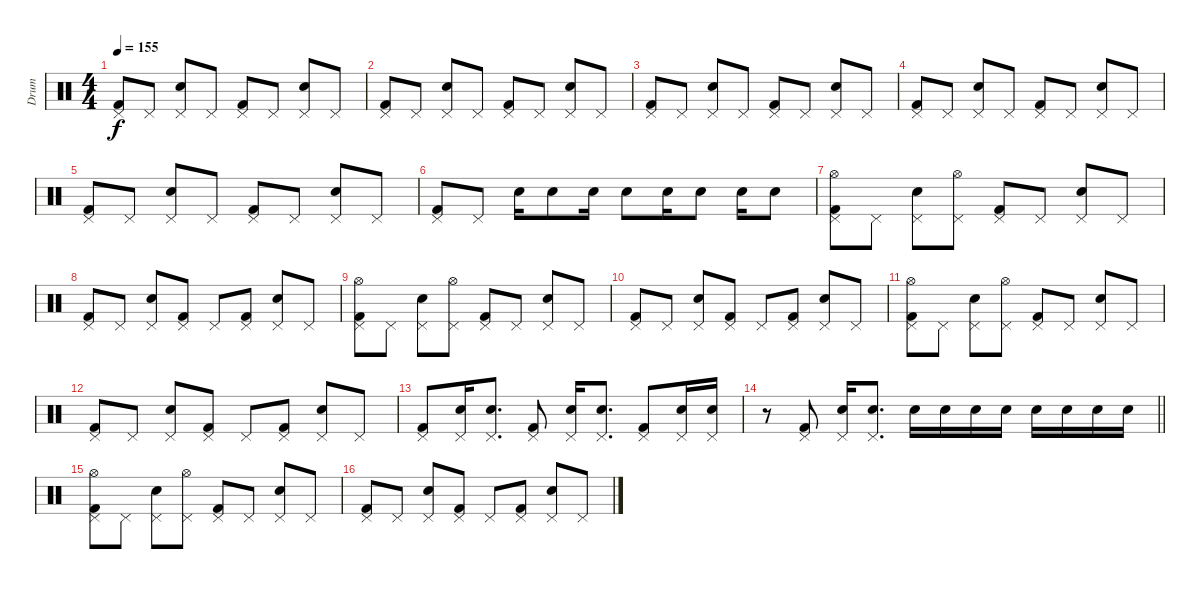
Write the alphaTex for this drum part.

\track ("Drum" "Drum") {instrument percussion}
\staff {score}
\articulation defaults
\ts (4 4)
\tempo 155
\clef neutral
\ks c
("Kick (hit) 2" "Pedal Hi-Hat (hit)").8{dy f} "Pedal Hi-Hat (hit)".8 ("Electric Snare (hit)" "Pedal Hi-Hat (hit)").8 "Pedal Hi-Hat (hit)".8 ("Kick (hit) 2" "Pedal Hi-Hat (hit)").8 "Pedal Hi-Hat (hit)".8 ("Electric Snare (hit)" "Pedal Hi-Hat (hit)").8 "Pedal Hi-Hat (hit)".8 |
("Kick (hit) 2" "Pedal Hi-Hat (hit)").8 "Pedal Hi-Hat (hit)".8 ("Electric Snare (hit)" "Pedal Hi-Hat (hit)").8 "Pedal Hi-Hat (hit)".8 ("Kick (hit) 2" "Pedal Hi-Hat (hit)").8 "Pedal Hi-Hat (hit)".8 ("Electric Snare (hit)" "Pedal Hi-Hat (hit)").8 "Pedal Hi-Hat (hit)".8 |
("Kick (hit) 2" "Pedal Hi-Hat (hit)").8 "Pedal Hi-Hat (hit)".8 ("Electric Snare (hit)" "Pedal Hi-Hat (hit)").8 "Pedal Hi-Hat (hit)".8 ("Kick (hit) 2" "Pedal Hi-Hat (hit)").8 "Pedal Hi-Hat (hit)".8 ("Electric Snare (hit)" "Pedal Hi-Hat (hit)").8 "Pedal Hi-Hat (hit)".8 |
("Kick (hit) 2" "Pedal Hi-Hat (hit)").8 "Pedal Hi-Hat (hit)".8 ("Electric Snare (hit)" "Pedal Hi-Hat (hit)").8 "Pedal Hi-Hat (hit)".8 ("Kick (hit) 2" "Pedal Hi-Hat (hit)").8 "Pedal Hi-Hat (hit)".8 ("Electric Snare (hit)" "Pedal Hi-Hat (hit)").8 "Pedal Hi-Hat (hit)".8 |
("Kick (hit) 2" "Pedal Hi-Hat (hit)").8 "Pedal Hi-Hat (hit)".8 ("Electric Snare (hit)" "Pedal Hi-Hat (hit)").8 "Pedal Hi-Hat (hit)".8 ("Kick (hit) 2" "Pedal Hi-Hat (hit)").8 "Pedal Hi-Hat (hit)".8 ("Electric Snare (hit)" "Pedal Hi-Hat (hit)").8 "Pedal Hi-Hat (hit)".8 |
("Kick (hit) 2" "Pedal Hi-Hat (hit)").8 "Pedal Hi-Hat (hit)".8 "Electric Snare (hit)".16 "Electric Snare (hit)".8 "Electric Snare (hit)".16 "Electric Snare (hit)".8 "Electric Snare (hit)".16 "Electric Snare (hit)".8 "Electric Snare (hit)".16 "Electric Snare (hit)".8 |
("Kick (hit) 2" "Pedal Hi-Hat (hit)" "Hi-Hat (open)").8 "Pedal Hi-Hat (hit)".8 ("Electric Snare (hit)" "Pedal Hi-Hat (hit)").8 ("Pedal Hi-Hat (hit)" "Hi-Hat (open)").8 ("Kick (hit) 2" "Pedal Hi-Hat (hit)").8 "Pedal Hi-Hat (hit)".8 ("Electric Snare (hit)" "Pedal Hi-Hat (hit)").8 "Pedal Hi-Hat (hit)".8 |
("Kick (hit) 2" "Pedal Hi-Hat (hit)").8 "Pedal Hi-Hat (hit)".8 ("Electric Snare (hit)" "Pedal Hi-Hat (hit)").8 ("Kick (hit) 2" "Pedal Hi-Hat (hit)").8 "Pedal Hi-Hat (hit)".8 ("Kick (hit) 2" "Pedal Hi-Hat (hit)").8 ("Electric Snare (hit)" "Pedal Hi-Hat (hit)").8 "Pedal Hi-Hat (hit)".8 |
("Kick (hit) 2" "Pedal Hi-Hat (hit)" "Hi-Hat (open)").8 "Pedal Hi-Hat (hit)".8 ("Electric Snare (hit)" "Pedal Hi-Hat (hit)").8 ("Pedal Hi-Hat (hit)" "Hi-Hat (open)").8 ("Kick (hit) 2" "Pedal Hi-Hat (hit)").8 "Pedal Hi-Hat (hit)".8 ("Electric Snare (hit)" "Pedal Hi-Hat (hit)").8 "Pedal Hi-Hat (hit)".8 |
("Kick (hit) 2" "Pedal Hi-Hat (hit)").8 "Pedal Hi-Hat (hit)".8 ("Electric Snare (hit)" "Pedal Hi-Hat (hit)").8 ("Kick (hit) 2" "Pedal Hi-Hat (hit)").8 "Pedal Hi-Hat (hit)".8 ("Kick (hit) 2" "Pedal Hi-Hat (hit)").8 ("Electric Snare (hit)" "Pedal Hi-Hat (hit)").8 "Pedal Hi-Hat (hit)".8 |
("Kick (hit) 2" "Pedal Hi-Hat (hit)" "Hi-Hat (open)").8 "Pedal Hi-Hat (hit)".8 ("Electric Snare (hit)" "Pedal Hi-Hat (hit)").8 ("Pedal Hi-Hat (hit)" "Hi-Hat (open)").8 ("Kick (hit) 2" "Pedal Hi-Hat (hit)").8 "Pedal Hi-Hat (hit)".8 ("Electric Snare (hit)" "Pedal Hi-Hat (hit)").8 "Pedal Hi-Hat (hit)".8 |
("Kick (hit) 2" "Pedal Hi-Hat (hit)").8 "Pedal Hi-Hat (hit)".8 ("Electric Snare (hit)" "Pedal Hi-Hat (hit)").8 ("Kick (hit) 2" "Pedal Hi-Hat (hit)").8 "Pedal Hi-Hat (hit)".8 ("Kick (hit) 2" "Pedal Hi-Hat (hit)").8 ("Electric Snare (hit)" "Pedal Hi-Hat (hit)").8 "Pedal Hi-Hat (hit)".8 |
("Kick (hit) 2" "Pedal Hi-Hat (hit)").8 ("Electric Snare (hit)" "Pedal Hi-Hat (hit)").16 ("Electric Snare (hit)" "Pedal Hi-Hat (hit)").8{d} ("Kick (hit) 2" "Pedal Hi-Hat (hit)").8 ("Electric Snare (hit)" "Pedal Hi-Hat (hit)").16 ("Electric Snare (hit)" "Pedal Hi-Hat (hit)").8{d} ("Kick (hit) 2" "Pedal Hi-Hat (hit)").8 ("Electric Snare (hit)" "Pedal Hi-Hat (hit)").16 ("Electric Snare (hit)" "Pedal Hi-Hat (hit)").16 |
\barLineRight lightlight
r.8 ("Kick (hit) 2" "Pedal Hi-Hat (hit)").8 ("Electric Snare (hit)" "Pedal Hi-Hat (hit)").16 ("Electric Snare (hit)" "Pedal Hi-Hat (hit)").8{d} "Electric Snare (hit)".16 "Electric Snare (hit)".16 "Electric Snare (hit)".16 "Electric Snare (hit)".16 "Electric Snare (hit)".16 "Electric Snare (hit)".16 "Electric Snare (hit)".16 "Electric Snare (hit)".16 |
("Kick (hit) 2" "Pedal Hi-Hat (hit)" "Hi-Hat (open)").8 "Pedal Hi-Hat (hit)".8 ("Electric Snare (hit)" "Pedal Hi-Hat (hit)").8 ("Pedal Hi-Hat (hit)" "Hi-Hat (open)").8 ("Kick (hit) 2" "Pedal Hi-Hat (hit)").8 "Pedal Hi-Hat (hit)".8 ("Electric Snare (hit)" "Pedal Hi-Hat (hit)").8 "Pedal Hi-Hat (hit)".8 |
("Kick (hit) 2" "Pedal Hi-Hat (hit)").8 "Pedal Hi-Hat (hit)".8 ("Electric Snare (hit)" "Pedal Hi-Hat (hit)").8 ("Kick (hit) 2" "Pedal Hi-Hat (hit)").8 "Pedal Hi-Hat (hit)".8 ("Kick (hit) 2" "Pedal Hi-Hat (hit)").8 ("Electric Snare (hit)" "Pedal Hi-Hat (hit)").8 "Pedal Hi-Hat (hit)".8
